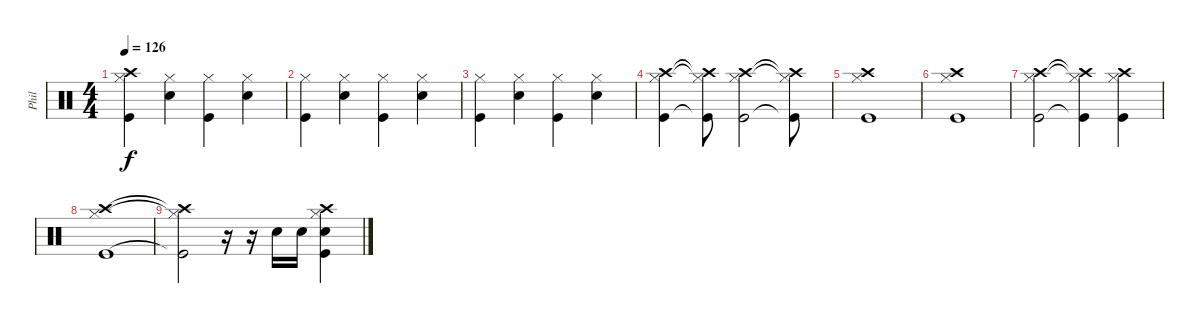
\track ("Phil" "Phil") {instrument percussion}
\staff {score}
\articulation defaults
\ts (4 4)
\tempo 126
\clef neutral
\ks c
("Hi-Hat (closed)" "Crash high (hit)" "Kick (hit)").4{dy f} ("Hi-Hat (closed)" "Snare (hit) 2").4 ("Hi-Hat (closed)" "Kick (hit)").4 ("Hi-Hat (closed)" "Snare (hit) 2").4 |
("Hi-Hat (closed)" "Kick (hit)").4 ("Hi-Hat (closed)" "Snare (hit) 2").4 ("Hi-Hat (closed)" "Kick (hit)").4 ("Hi-Hat (closed)" "Snare (hit) 2").4 |
("Hi-Hat (closed)" "Kick (hit)").4 ("Hi-Hat (closed)" "Snare (hit) 2").4 ("Hi-Hat (closed)" "Kick (hit)").4 ("Hi-Hat (closed)" "Snare (hit) 2").4 |
("Hi-Hat (closed)" "Crash high (hit)" "Kick (hit)").4 ("Hi-Hat (closed)"{t} "Crash high (hit)"{t} "Kick (hit)"{t}).8 ("Hi-Hat (closed)" "Crash high (hit)" "Kick (hit)").2 ("Hi-Hat (closed)"{t} "Crash high (hit)"{t} "Kick (hit)"{t}).8 |
("Hi-Hat (closed)" "Crash high (hit)" "Kick (hit)").1 |
("Hi-Hat (closed)" "Crash high (hit)" "Kick (hit)").1 |
("Hi-Hat (closed)" "Crash high (hit)" "Kick (hit)").2 ("Hi-Hat (closed)"{t} "Crash high (hit)"{t} "Kick (hit)"{t}).4 ("Hi-Hat (closed)" "Crash high (hit)" "Kick (hit)").4 |
("Hi-Hat (closed)" "Crash high (hit)" "Kick (hit)").1 |
("Hi-Hat (closed)"{t} "Crash high (hit)"{t} "Kick (hit)"{t}).2 r.16 r.16 "Snare (hit) 2".16 "Snare (hit) 2".16 ("Hi-Hat (closed)" "Crash high (hit)" "Snare (hit) 2" "Kick (hit)").4
